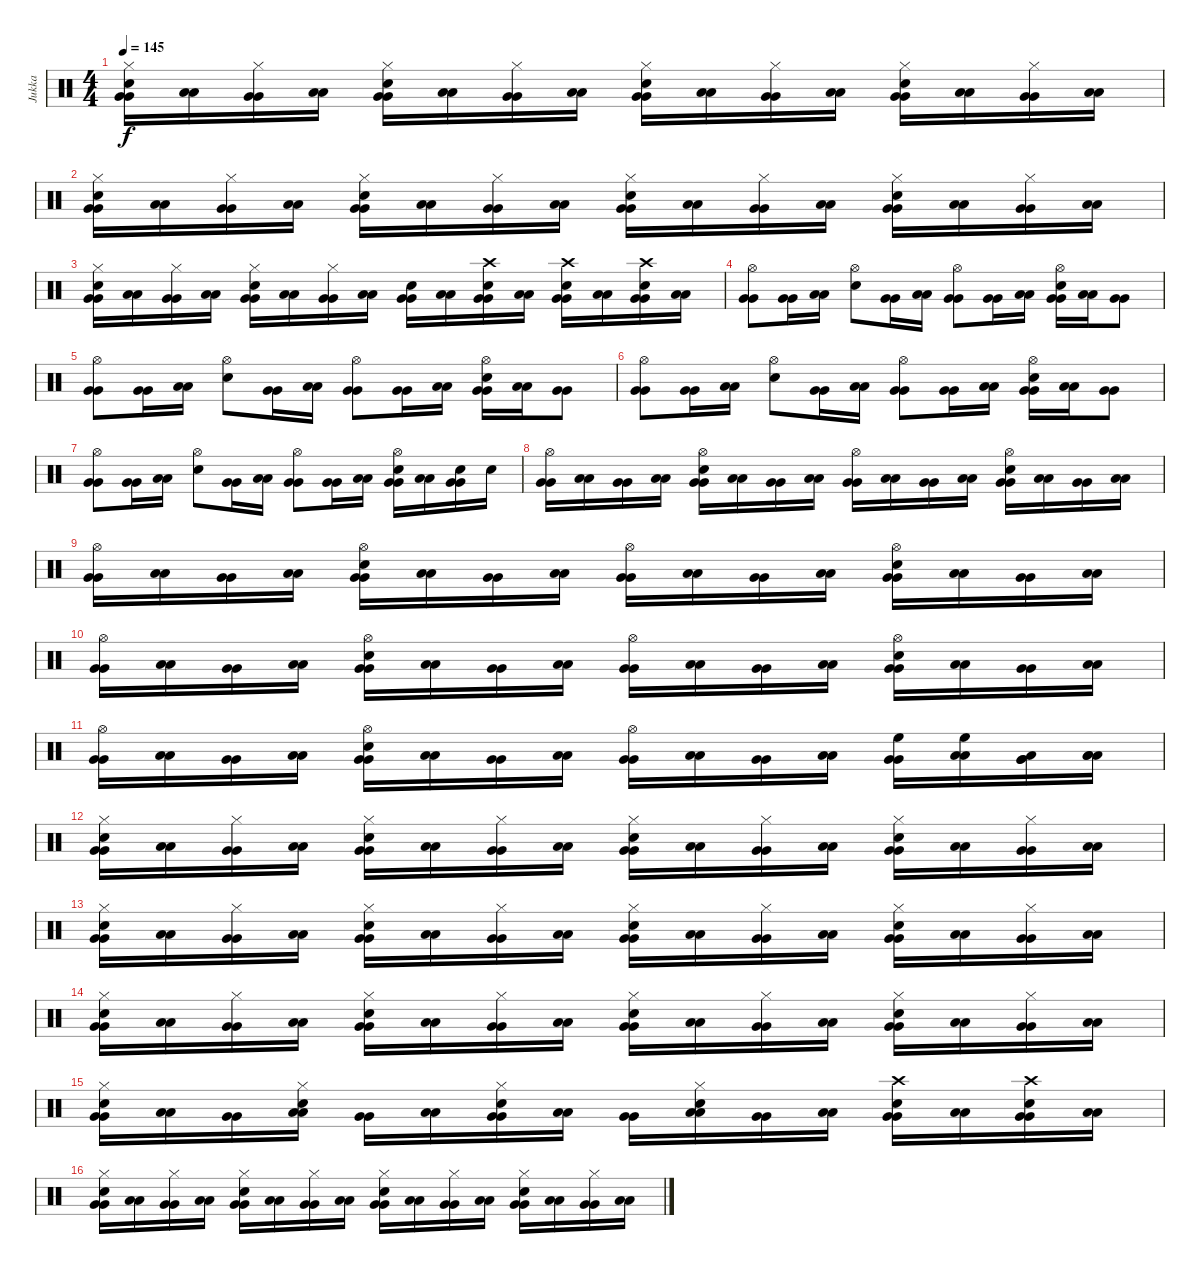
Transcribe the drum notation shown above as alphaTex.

\track ("Jukka" "Jukka") {instrument percussion}
\staff {score}
\articulation defaults
\ts (4 4)
\tempo 145
\clef neutral
\ks c
("Hi-Hat (closed)" "Electric Snare (hit)" "Very Low Tom (hit)" "Very Low Tom (hit)").16{dy f} ("Low Floor Tom (hit)" "Low Floor Tom (hit)").16 ("Hi-Hat (closed)" "Very Low Tom (hit)" "Very Low Tom (hit)").16 ("Low Floor Tom (hit)" "Low Floor Tom (hit)").16 ("Hi-Hat (closed)" "Electric Snare (hit)" "Very Low Tom (hit)" "Very Low Tom (hit)").16 ("Low Floor Tom (hit)" "Low Floor Tom (hit)").16 ("Hi-Hat (closed)" "Very Low Tom (hit)" "Very Low Tom (hit)").16 ("Low Floor Tom (hit)" "Low Floor Tom (hit)").16 ("Hi-Hat (closed)" "Electric Snare (hit)" "Very Low Tom (hit)" "Very Low Tom (hit)").16 ("Low Floor Tom (hit)" "Low Floor Tom (hit)").16 ("Hi-Hat (closed)" "Very Low Tom (hit)" "Very Low Tom (hit)").16 ("Low Floor Tom (hit)" "Low Floor Tom (hit)").16 ("Hi-Hat (closed)" "Electric Snare (hit)" "Very Low Tom (hit)" "Very Low Tom (hit)").16 ("Low Floor Tom (hit)" "Low Floor Tom (hit)").16 ("Hi-Hat (closed)" "Very Low Tom (hit)" "Very Low Tom (hit)").16 ("Low Floor Tom (hit)" "Low Floor Tom (hit)").16 |
("Hi-Hat (closed)" "Electric Snare (hit)" "Very Low Tom (hit)" "Very Low Tom (hit)").16 ("Low Floor Tom (hit)" "Low Floor Tom (hit)").16 ("Hi-Hat (closed)" "Very Low Tom (hit)" "Very Low Tom (hit)").16 ("Low Floor Tom (hit)" "Low Floor Tom (hit)").16 ("Hi-Hat (closed)" "Electric Snare (hit)" "Very Low Tom (hit)" "Very Low Tom (hit)").16 ("Low Floor Tom (hit)" "Low Floor Tom (hit)").16 ("Hi-Hat (closed)" "Very Low Tom (hit)" "Very Low Tom (hit)").16 ("Low Floor Tom (hit)" "Low Floor Tom (hit)").16 ("Hi-Hat (closed)" "Electric Snare (hit)" "Very Low Tom (hit)" "Very Low Tom (hit)").16 ("Low Floor Tom (hit)" "Low Floor Tom (hit)").16 ("Hi-Hat (closed)" "Very Low Tom (hit)" "Very Low Tom (hit)").16 ("Low Floor Tom (hit)" "Low Floor Tom (hit)").16 ("Hi-Hat (closed)" "Electric Snare (hit)" "Very Low Tom (hit)" "Very Low Tom (hit)").16 ("Low Floor Tom (hit)" "Low Floor Tom (hit)").16 ("Hi-Hat (closed)" "Very Low Tom (hit)" "Very Low Tom (hit)").16 ("Low Floor Tom (hit)" "Low Floor Tom (hit)").16 |
("Hi-Hat (closed)" "Electric Snare (hit)" "Very Low Tom (hit)" "Very Low Tom (hit)").16 ("Low Floor Tom (hit)" "Low Floor Tom (hit)").16 ("Hi-Hat (closed)" "Very Low Tom (hit)" "Very Low Tom (hit)").16 ("Low Floor Tom (hit)" "Low Floor Tom (hit)").16 ("Hi-Hat (closed)" "Electric Snare (hit)" "Very Low Tom (hit)" "Very Low Tom (hit)").16 ("Low Floor Tom (hit)" "Low Floor Tom (hit)").16 ("Hi-Hat (closed)" "Very Low Tom (hit)" "Very Low Tom (hit)").16 ("Low Floor Tom (hit)" "Low Floor Tom (hit)").16 ("Electric Snare (hit)" "Very Low Tom (hit)" "Very Low Tom (hit)").16 ("Low Floor Tom (hit)" "Low Floor Tom (hit)").16 ("Crash high (hit)" "Electric Snare (hit)" "Very Low Tom (hit)" "Very Low Tom (hit)").16 ("Low Floor Tom (hit)" "Low Floor Tom (hit)").16 ("Crash high (hit)" "Electric Snare (hit)" "Very Low Tom (hit)" "Very Low Tom (hit)").16 ("Low Floor Tom (hit)" "Low Floor Tom (hit)").16 ("Crash high (hit)" "Electric Snare (hit)" "Very Low Tom (hit)" "Very Low Tom (hit)").16 ("Low Floor Tom (hit)" "Low Floor Tom (hit)").16 |
("Hi-Hat (open)" "Very Low Tom (hit)" "Very Low Tom (hit)").8 ("Very Low Tom (hit)" "Very Low Tom (hit)").16 ("Low Floor Tom (hit)" "Low Floor Tom (hit)").16 ("Hi-Hat (open)" "Electric Snare (hit)").8 ("Very Low Tom (hit)" "Very Low Tom (hit)").16 ("Low Floor Tom (hit)" "Low Floor Tom (hit)").16 ("Hi-Hat (open)" "Very Low Tom (hit)" "Very Low Tom (hit)").8 ("Very Low Tom (hit)" "Very Low Tom (hit)").16 ("Low Floor Tom (hit)" "Low Floor Tom (hit)").16 ("Hi-Hat (open)" "Electric Snare (hit)" "Very Low Tom (hit)" "Very Low Tom (hit)").16 ("Low Floor Tom (hit)" "Low Floor Tom (hit)").16 ("Very Low Tom (hit)" "Very Low Tom (hit)").8 |
("Hi-Hat (open)" "Very Low Tom (hit)" "Very Low Tom (hit)").8 ("Very Low Tom (hit)" "Very Low Tom (hit)").16 ("Low Floor Tom (hit)" "Low Floor Tom (hit)").16 ("Hi-Hat (open)" "Electric Snare (hit)").8 ("Very Low Tom (hit)" "Very Low Tom (hit)").16 ("Low Floor Tom (hit)" "Low Floor Tom (hit)").16 ("Hi-Hat (open)" "Very Low Tom (hit)" "Very Low Tom (hit)").8 ("Very Low Tom (hit)" "Very Low Tom (hit)").16 ("Low Floor Tom (hit)" "Low Floor Tom (hit)").16 ("Hi-Hat (open)" "Electric Snare (hit)" "Very Low Tom (hit)" "Very Low Tom (hit)").16 ("Low Floor Tom (hit)" "Low Floor Tom (hit)").16 ("Very Low Tom (hit)" "Very Low Tom (hit)").8 |
("Hi-Hat (open)" "Very Low Tom (hit)" "Very Low Tom (hit)").8 ("Very Low Tom (hit)" "Very Low Tom (hit)").16 ("Low Floor Tom (hit)" "Low Floor Tom (hit)").16 ("Hi-Hat (open)" "Electric Snare (hit)").8 ("Very Low Tom (hit)" "Very Low Tom (hit)").16 ("Low Floor Tom (hit)" "Low Floor Tom (hit)").16 ("Hi-Hat (open)" "Very Low Tom (hit)" "Very Low Tom (hit)").8 ("Very Low Tom (hit)" "Very Low Tom (hit)").16 ("Low Floor Tom (hit)" "Low Floor Tom (hit)").16 ("Hi-Hat (open)" "Electric Snare (hit)" "Very Low Tom (hit)" "Very Low Tom (hit)").16 ("Low Floor Tom (hit)" "Low Floor Tom (hit)").16 ("Very Low Tom (hit)" "Very Low Tom (hit)").8 |
("Hi-Hat (open)" "Very Low Tom (hit)" "Very Low Tom (hit)").8 ("Very Low Tom (hit)" "Very Low Tom (hit)").16 ("Low Floor Tom (hit)" "Low Floor Tom (hit)").16 ("Hi-Hat (open)" "Electric Snare (hit)").8 ("Very Low Tom (hit)" "Very Low Tom (hit)").16 ("Low Floor Tom (hit)" "Low Floor Tom (hit)").16 ("Hi-Hat (open)" "Very Low Tom (hit)" "Very Low Tom (hit)").8 ("Very Low Tom (hit)" "Very Low Tom (hit)").16 ("Low Floor Tom (hit)" "Low Floor Tom (hit)").16 ("Hi-Hat (open)" "Electric Snare (hit)" "Very Low Tom (hit)" "Very Low Tom (hit)").16 ("Low Floor Tom (hit)" "Low Floor Tom (hit)").16 ("Electric Snare (hit)" "Very Low Tom (hit)" "Very Low Tom (hit)").16 "Electric Snare (hit)".16 |
("Hi-Hat (open)" "Very Low Tom (hit)" "Very Low Tom (hit)").16 ("Low Floor Tom (hit)" "Low Floor Tom (hit)").16 ("Very Low Tom (hit)" "Very Low Tom (hit)").16 ("Low Floor Tom (hit)" "Low Floor Tom (hit)").16 ("Hi-Hat (open)" "Electric Snare (hit)" "Very Low Tom (hit)" "Very Low Tom (hit)").16 ("Low Floor Tom (hit)" "Low Floor Tom (hit)").16 ("Very Low Tom (hit)" "Very Low Tom (hit)").16 ("Low Floor Tom (hit)" "Low Floor Tom (hit)").16 ("Hi-Hat (open)" "Very Low Tom (hit)" "Very Low Tom (hit)").16 ("Low Floor Tom (hit)" "Low Floor Tom (hit)").16 ("Very Low Tom (hit)" "Very Low Tom (hit)").16 ("Low Floor Tom (hit)" "Low Floor Tom (hit)").16 ("Hi-Hat (open)" "Electric Snare (hit)" "Very Low Tom (hit)" "Very Low Tom (hit)").16 ("Low Floor Tom (hit)" "Low Floor Tom (hit)").16 ("Very Low Tom (hit)" "Very Low Tom (hit)").16 ("Low Floor Tom (hit)" "Low Floor Tom (hit)").16 |
("Hi-Hat (open)" "Very Low Tom (hit)" "Very Low Tom (hit)").16 ("Low Floor Tom (hit)" "Low Floor Tom (hit)").16 ("Very Low Tom (hit)" "Very Low Tom (hit)").16 ("Low Floor Tom (hit)" "Low Floor Tom (hit)").16 ("Hi-Hat (open)" "Electric Snare (hit)" "Very Low Tom (hit)" "Very Low Tom (hit)").16 ("Low Floor Tom (hit)" "Low Floor Tom (hit)").16 ("Very Low Tom (hit)" "Very Low Tom (hit)").16 ("Low Floor Tom (hit)" "Low Floor Tom (hit)").16 ("Hi-Hat (open)" "Very Low Tom (hit)" "Very Low Tom (hit)").16 ("Low Floor Tom (hit)" "Low Floor Tom (hit)").16 ("Very Low Tom (hit)" "Very Low Tom (hit)").16 ("Low Floor Tom (hit)" "Low Floor Tom (hit)").16 ("Hi-Hat (open)" "Electric Snare (hit)" "Very Low Tom (hit)" "Very Low Tom (hit)").16 ("Low Floor Tom (hit)" "Low Floor Tom (hit)").16 ("Very Low Tom (hit)" "Very Low Tom (hit)").16 ("Low Floor Tom (hit)" "Low Floor Tom (hit)").16 |
("Hi-Hat (open)" "Very Low Tom (hit)" "Very Low Tom (hit)").16 ("Low Floor Tom (hit)" "Low Floor Tom (hit)").16 ("Very Low Tom (hit)" "Very Low Tom (hit)").16 ("Low Floor Tom (hit)" "Low Floor Tom (hit)").16 ("Hi-Hat (open)" "Electric Snare (hit)" "Very Low Tom (hit)" "Very Low Tom (hit)").16 ("Low Floor Tom (hit)" "Low Floor Tom (hit)").16 ("Very Low Tom (hit)" "Very Low Tom (hit)").16 ("Low Floor Tom (hit)" "Low Floor Tom (hit)").16 ("Hi-Hat (open)" "Very Low Tom (hit)" "Very Low Tom (hit)").16 ("Low Floor Tom (hit)" "Low Floor Tom (hit)").16 ("Very Low Tom (hit)" "Very Low Tom (hit)").16 ("Low Floor Tom (hit)" "Low Floor Tom (hit)").16 ("Hi-Hat (open)" "Electric Snare (hit)" "Very Low Tom (hit)" "Very Low Tom (hit)").16 ("Low Floor Tom (hit)" "Low Floor Tom (hit)").16 ("Very Low Tom (hit)" "Very Low Tom (hit)").16 ("Low Floor Tom (hit)" "Low Floor Tom (hit)").16 |
("Hi-Hat (open)" "Very Low Tom (hit)" "Very Low Tom (hit)").16 ("Low Floor Tom (hit)" "Low Floor Tom (hit)").16 ("Very Low Tom (hit)" "Very Low Tom (hit)").16 ("Low Floor Tom (hit)" "Low Floor Tom (hit)").16 ("Hi-Hat (open)" "Electric Snare (hit)" "Very Low Tom (hit)" "Very Low Tom (hit)").16 ("Low Floor Tom (hit)" "Low Floor Tom (hit)").16 ("Very Low Tom (hit)" "Very Low Tom (hit)").16 ("Low Floor Tom (hit)" "Low Floor Tom (hit)").16 ("Hi-Hat (open)" "Very Low Tom (hit)" "Very Low Tom (hit)").16 ("Low Floor Tom (hit)" "Low Floor Tom (hit)").16 ("Very Low Tom (hit)" "Very Low Tom (hit)").16 ("Low Floor Tom (hit)" "Low Floor Tom (hit)").16 ("High Floor Tom (hit)" "Very Low Tom (hit)" "Very Low Tom (hit)").16 ("High Floor Tom (hit)" "Low Floor Tom (hit)" "Low Floor Tom (hit)").16 ("Low Tom (hit)" "Very Low Tom (hit)" "Very Low Tom (hit)").16 ("Low Tom (hit)" "Low Floor Tom (hit)" "Low Floor Tom (hit)").16 |
("Hi-Hat (closed)" "Electric Snare (hit)" "Very Low Tom (hit)" "Very Low Tom (hit)").16 ("Low Floor Tom (hit)" "Low Floor Tom (hit)").16 ("Hi-Hat (closed)" "Very Low Tom (hit)" "Very Low Tom (hit)").16 ("Low Floor Tom (hit)" "Low Floor Tom (hit)").16 ("Hi-Hat (closed)" "Electric Snare (hit)" "Very Low Tom (hit)" "Very Low Tom (hit)").16 ("Low Floor Tom (hit)" "Low Floor Tom (hit)").16 ("Hi-Hat (closed)" "Very Low Tom (hit)" "Very Low Tom (hit)").16 ("Low Floor Tom (hit)" "Low Floor Tom (hit)").16 ("Hi-Hat (closed)" "Electric Snare (hit)" "Very Low Tom (hit)" "Very Low Tom (hit)").16 ("Low Floor Tom (hit)" "Low Floor Tom (hit)").16 ("Hi-Hat (closed)" "Very Low Tom (hit)" "Very Low Tom (hit)").16 ("Low Floor Tom (hit)" "Low Floor Tom (hit)").16 ("Hi-Hat (closed)" "Electric Snare (hit)" "Very Low Tom (hit)" "Very Low Tom (hit)").16 ("Low Floor Tom (hit)" "Low Floor Tom (hit)").16 ("Hi-Hat (closed)" "Very Low Tom (hit)" "Very Low Tom (hit)").16 ("Low Floor Tom (hit)" "Low Floor Tom (hit)").16 |
("Hi-Hat (closed)" "Electric Snare (hit)" "Very Low Tom (hit)" "Very Low Tom (hit)").16 ("Low Floor Tom (hit)" "Low Floor Tom (hit)").16 ("Hi-Hat (closed)" "Very Low Tom (hit)" "Very Low Tom (hit)").16 ("Low Floor Tom (hit)" "Low Floor Tom (hit)").16 ("Hi-Hat (closed)" "Electric Snare (hit)" "Very Low Tom (hit)" "Very Low Tom (hit)").16 ("Low Floor Tom (hit)" "Low Floor Tom (hit)").16 ("Hi-Hat (closed)" "Very Low Tom (hit)" "Very Low Tom (hit)").16 ("Low Floor Tom (hit)" "Low Floor Tom (hit)").16 ("Hi-Hat (closed)" "Electric Snare (hit)" "Very Low Tom (hit)" "Very Low Tom (hit)").16 ("Low Floor Tom (hit)" "Low Floor Tom (hit)").16 ("Hi-Hat (closed)" "Very Low Tom (hit)" "Very Low Tom (hit)").16 ("Low Floor Tom (hit)" "Low Floor Tom (hit)").16 ("Hi-Hat (closed)" "Electric Snare (hit)" "Very Low Tom (hit)" "Very Low Tom (hit)").16 ("Low Floor Tom (hit)" "Low Floor Tom (hit)").16 ("Hi-Hat (closed)" "Very Low Tom (hit)" "Very Low Tom (hit)").16 ("Low Floor Tom (hit)" "Low Floor Tom (hit)").16 |
("Hi-Hat (closed)" "Electric Snare (hit)" "Very Low Tom (hit)" "Very Low Tom (hit)").16 ("Low Floor Tom (hit)" "Low Floor Tom (hit)").16 ("Hi-Hat (closed)" "Very Low Tom (hit)" "Very Low Tom (hit)").16 ("Low Floor Tom (hit)" "Low Floor Tom (hit)").16 ("Hi-Hat (closed)" "Electric Snare (hit)" "Very Low Tom (hit)" "Very Low Tom (hit)").16 ("Low Floor Tom (hit)" "Low Floor Tom (hit)").16 ("Hi-Hat (closed)" "Very Low Tom (hit)" "Very Low Tom (hit)").16 ("Low Floor Tom (hit)" "Low Floor Tom (hit)").16 ("Hi-Hat (closed)" "Electric Snare (hit)" "Very Low Tom (hit)" "Very Low Tom (hit)").16 ("Low Floor Tom (hit)" "Low Floor Tom (hit)").16 ("Hi-Hat (closed)" "Very Low Tom (hit)" "Very Low Tom (hit)").16 ("Low Floor Tom (hit)" "Low Floor Tom (hit)").16 ("Hi-Hat (closed)" "Electric Snare (hit)" "Very Low Tom (hit)" "Very Low Tom (hit)").16 ("Low Floor Tom (hit)" "Low Floor Tom (hit)").16 ("Hi-Hat (closed)" "Very Low Tom (hit)" "Very Low Tom (hit)").16 ("Low Floor Tom (hit)" "Low Floor Tom (hit)").16 |
("Hi-Hat (closed)" "Electric Snare (hit)" "Very Low Tom (hit)" "Very Low Tom (hit)").16 ("Low Floor Tom (hit)" "Low Floor Tom (hit)").16 ("Very Low Tom (hit)" "Very Low Tom (hit)").16 ("Hi-Hat (closed)" "Electric Snare (hit)" "Low Floor Tom (hit)" "Low Floor Tom (hit)").16 ("Very Low Tom (hit)" "Very Low Tom (hit)").16 ("Low Floor Tom (hit)" "Low Floor Tom (hit)").16 ("Hi-Hat (closed)" "Electric Snare (hit)" "Very Low Tom (hit)" "Very Low Tom (hit)").16 ("Low Floor Tom (hit)" "Low Floor Tom (hit)").16 ("Very Low Tom (hit)" "Very Low Tom (hit)").16 ("Hi-Hat (closed)" "Electric Snare (hit)" "Low Floor Tom (hit)" "Low Floor Tom (hit)").16 ("Very Low Tom (hit)" "Very Low Tom (hit)").16 ("Low Floor Tom (hit)" "Low Floor Tom (hit)").16 ("Crash high (hit)" "Electric Snare (hit)" "Very Low Tom (hit)" "Very Low Tom (hit)").16 ("Low Floor Tom (hit)" "Low Floor Tom (hit)").16 ("Crash high (hit)" "Electric Snare (hit)" "Very Low Tom (hit)" "Very Low Tom (hit)").16 ("Low Floor Tom (hit)" "Low Floor Tom (hit)").16 |
("Hi-Hat (closed)" "Electric Snare (hit)" "Very Low Tom (hit)" "Very Low Tom (hit)").16 ("Low Floor Tom (hit)" "Low Floor Tom (hit)").16 ("Hi-Hat (closed)" "Very Low Tom (hit)" "Very Low Tom (hit)").16 ("Low Floor Tom (hit)" "Low Floor Tom (hit)").16 ("Hi-Hat (closed)" "Electric Snare (hit)" "Very Low Tom (hit)" "Very Low Tom (hit)").16 ("Low Floor Tom (hit)" "Low Floor Tom (hit)").16 ("Hi-Hat (closed)" "Very Low Tom (hit)" "Very Low Tom (hit)").16 ("Low Floor Tom (hit)" "Low Floor Tom (hit)").16 ("Hi-Hat (closed)" "Electric Snare (hit)" "Very Low Tom (hit)" "Very Low Tom (hit)").16 ("Low Floor Tom (hit)" "Low Floor Tom (hit)").16 ("Hi-Hat (closed)" "Very Low Tom (hit)" "Very Low Tom (hit)").16 ("Low Floor Tom (hit)" "Low Floor Tom (hit)").16 ("Hi-Hat (closed)" "Electric Snare (hit)" "Very Low Tom (hit)" "Very Low Tom (hit)").16 ("Low Floor Tom (hit)" "Low Floor Tom (hit)").16 ("Hi-Hat (closed)" "Very Low Tom (hit)" "Very Low Tom (hit)").16 ("Low Floor Tom (hit)" "Low Floor Tom (hit)").16
